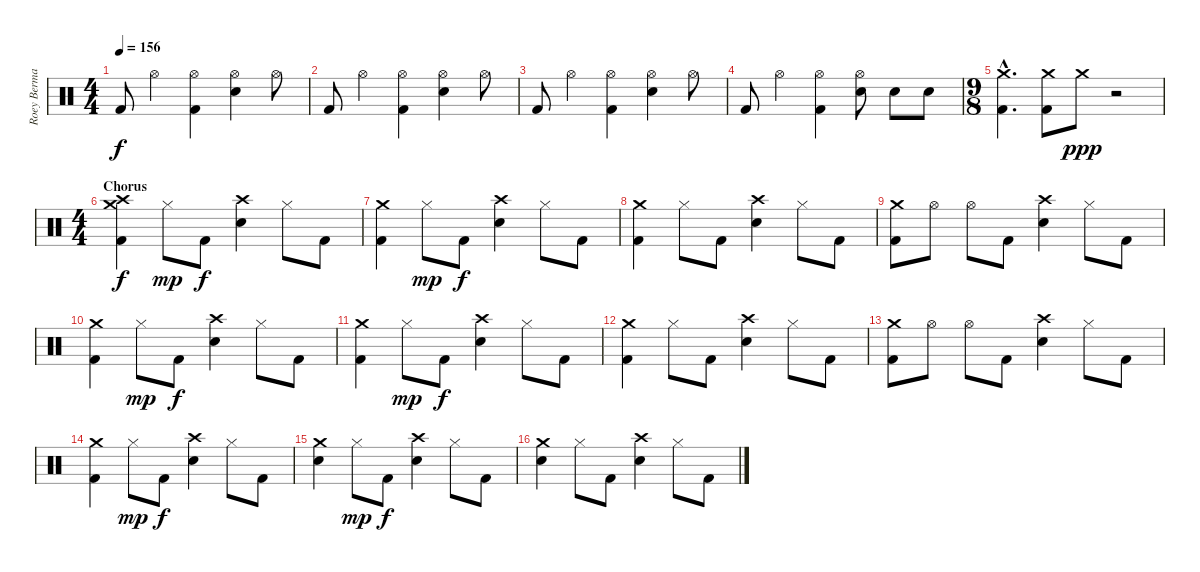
\track ("Roey Berman" "Roey Berma") {instrument percussion}
\staff {score}
\articulation defaults
\ts (4 4)
\tempo 156
\clef neutral
\ks c "Kick (hit) 2".8{dy f} "Hi-Hat (open)".4
("Hi-Hat (open)" "Kick (hit) 2").4 ("Hi-Hat (open)" "Electric Snare (hit)").4 "Hi-Hat (open)".8 |
"Kick (hit) 2".8 "Hi-Hat (open)".4 ("Hi-Hat (open)" "Kick (hit) 2").4 ("Hi-Hat (open)" "Electric Snare (hit)").4 "Hi-Hat (open)".8 |
"Kick (hit) 2".8 "Hi-Hat (open)".4 ("Hi-Hat (open)" "Kick (hit) 2").4 ("Hi-Hat (open)" "Electric Snare (hit)").4 "Hi-Hat (open)".8 |
"Kick (hit) 2".8 "Hi-Hat (open)".4 ("Hi-Hat (open)" "Kick (hit) 2").4 ("Hi-Hat (open)" "Electric Snare (hit)").8 "Electric Snare (hit)".8 "Electric Snare (hit)".8 |
\ts (9 8)
("Crash medium (hit)"{hac} "Kick (hit) 2"{hac}).4{d} ("Crash medium (hit)" "Kick (hit) 2").8 "Crash medium (hit)".8{dy ppp} r.2 |
\ts (4 4)
\section ("" "Chorus")
("Crash high (hit)" "Crash medium (hit)" "Kick (hit) 2").4{dy f} "Hi-Hat (closed)".8{dy mp} "Kick (hit) 2".8{dy f} ("Crash high (hit)" "Electric Snare (hit)").4 "Hi-Hat (closed)".8 "Kick (hit) 2".8 |
("Crash medium (hit)" "Kick (hit) 2").4 "Hi-Hat (closed)".8{dy mp} "Kick (hit) 2".8{dy f} ("Crash high (hit)" "Electric Snare (hit)").4 "Hi-Hat (closed)".8 "Kick (hit) 2".8 |
("Crash medium (hit)" "Kick (hit) 2").4 "Hi-Hat (closed)".8 "Kick (hit) 2".8 ("Crash high (hit)" "Electric Snare (hit)").4 "Hi-Hat (closed)".8 "Kick (hit) 2".8 |
("Crash medium (hit)" "Kick (hit) 2").8 "Hi-Hat (open)".8 "Hi-Hat (open)".8 "Kick (hit) 2".8 ("Crash high (hit)" "Electric Snare (hit)").4 "Hi-Hat (closed)".8 "Kick (hit) 2".8 |
("Crash medium (hit)" "Kick (hit) 2").4 "Hi-Hat (closed)".8{dy mp} "Kick (hit) 2".8{dy f} ("Crash high (hit)" "Electric Snare (hit)").4 "Hi-Hat (closed)".8 "Kick (hit) 2".8 |
("Crash medium (hit)" "Kick (hit) 2").4 "Hi-Hat (closed)".8{dy mp} "Kick (hit) 2".8{dy f} ("Crash high (hit)" "Electric Snare (hit)").4 "Hi-Hat (closed)".8 "Kick (hit) 2".8 |
("Crash medium (hit)" "Kick (hit) 2").4 "Hi-Hat (closed)".8 "Kick (hit) 2".8 ("Crash high (hit)" "Electric Snare (hit)").4 "Hi-Hat (closed)".8 "Kick (hit) 2".8 |
("Crash medium (hit)" "Kick (hit) 2").8 "Hi-Hat (open)".8 "Hi-Hat (open)".8 "Kick (hit) 2".8 ("Crash high (hit)" "Electric Snare (hit)").4 "Hi-Hat (closed)".8 "Kick (hit) 2".8 |
("Crash medium (hit)" "Kick (hit) 2").4 "Hi-Hat (closed)".8{dy mp} "Kick (hit) 2".8{dy f} ("Crash high (hit)" "Electric Snare (hit)").4 "Hi-Hat (closed)".8 "Kick (hit) 2".8 |
("Crash medium (hit)" "Electric Snare (hit)").4 "Hi-Hat (closed)".8{dy mp} "Kick (hit) 2".8{dy f} ("Crash high (hit)" "Electric Snare (hit)").4 "Hi-Hat (closed)".8 "Kick (hit) 2".8 |
("Crash medium (hit)" "Electric Snare (hit)").4 "Hi-Hat (closed)".8 "Kick (hit) 2".8 ("Crash high (hit)" "Electric Snare (hit)").4 "Hi-Hat (closed)".8 "Kick (hit) 2".8
